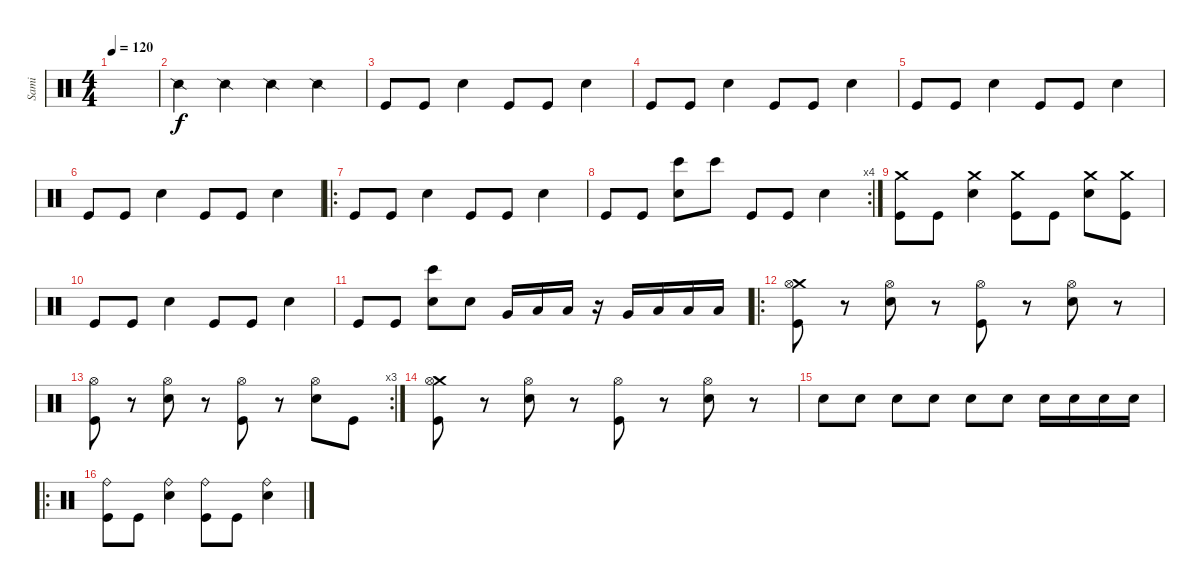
\track ("Sami" "Sami") {instrument percussion}
\staff {score}
\articulation defaults
\ts (4 4)
\tempo 120
\clef neutral
\ks c
|
"Snare (side stick) 2".4 "Snare (side stick) 2".4 "Snare (side stick) 2".4 "Snare (side stick) 2".4 |
"Kick (hit)".8 "Kick (hit)".8 "Electric Snare (hit)".4 "Kick (hit)".8 "Kick (hit)".8 "Electric Snare (hit)".4 |
"Kick (hit)".8 "Kick (hit)".8 "Electric Snare (hit)".4 "Kick (hit)".8 "Kick (hit)".8 "Electric Snare (hit)".4 |
"Kick (hit)".8 "Kick (hit)".8 "Electric Snare (hit)".4 "Kick (hit)".8 "Kick (hit)".8 "Electric Snare (hit)".4 |
"Kick (hit)".8 "Kick (hit)".8 "Electric Snare (hit)".4 "Kick (hit)".8 "Kick (hit)".8 "Electric Snare (hit)".4 |
\ro "Kick (hit)".8 "Kick (hit)".8 "Electric Snare (hit)".4 "Kick (hit)".8 "Kick (hit)".8 "Electric Snare (hit)".4
|
\rc 4 "Kick (hit)".8 "Kick (hit)".8
("Bongo High (hit)" "Electric Snare (hit)").8 "Bongo High (hit)".8 "Kick (hit)".8 "Kick (hit)".8 "Electric Snare (hit)".4 |
("Crash medium (hit)" "Kick (hit)").8 "Kick (hit)".8 ("Crash medium (hit)" "Electric Snare (hit)").4 ("Kick (hit)" "Crash medium (hit)").8 "Kick (hit)".8 ("Crash medium (hit)" "Electric Snare (hit)").8 ("Crash medium (hit)" "Kick (hit)").8 |
"Kick (hit)".8 "Kick (hit)".8 "Electric Snare (hit)".4 "Kick (hit)".8 "Kick (hit)".8 "Electric Snare (hit)".4 |
"Kick (hit)".8 "Kick (hit)".8 ("Bongo High (hit)" "Electric Snare (hit)").8 "Electric Snare (hit)".8 "Very Low Tom (hit)".16 "Low Floor Tom (hit)".16 "Low Floor Tom (hit)".16 r.16 "Very Low Tom (hit)".16 "Low Floor Tom (hit)".16 "Low Floor Tom (hit)".16 "Low Floor Tom (hit)".16 |
\ro
("Crash medium (hit)" "Hi-Hat (open)" "Kick (hit)").8 r.8 ("Electric Snare (hit)" "Hi-Hat (open)").8 r.8 ("Kick (hit)" "Hi-Hat (open)").8 r.8 ("Electric Snare (hit)" "Hi-Hat (open)").8 r.8 |
\rc 3
("Hi-Hat (open)" "Kick (hit)").8 r.8 ("Electric Snare (hit)" "Hi-Hat (open)").8 r.8 ("Kick (hit)" "Hi-Hat (open)").8 r.8 ("Electric Snare (hit)" "Hi-Hat (open)").8 "Kick (hit)".8 |
("Crash medium (hit)" "Hi-Hat (open)" "Kick (hit)").8 r.8 ("Electric Snare (hit)" "Hi-Hat (open)").8 r.8 ("Kick (hit)" "Hi-Hat (open)").8 r.8 ("Electric Snare (hit)" "Hi-Hat (open)").8 r.8 |
"Electric Snare (hit)".8 "Electric Snare (hit)".8 "Electric Snare (hit)".8 "Electric Snare (hit)".8 "Electric Snare (hit)".8 "Electric Snare (hit)".8 "Electric Snare (hit)".16 "Electric Snare (hit)".16 "Electric Snare (hit)".16 "Electric Snare (hit)".16 |
\ro
("Ride (bell)" "Kick (hit)").8 "Kick (hit)".8 ("Ride (bell)" "Electric Snare (hit)").4 ("Ride (bell)" "Kick (hit)").8 "Kick (hit)".8 ("Ride (bell)" "Electric Snare (hit)").4
